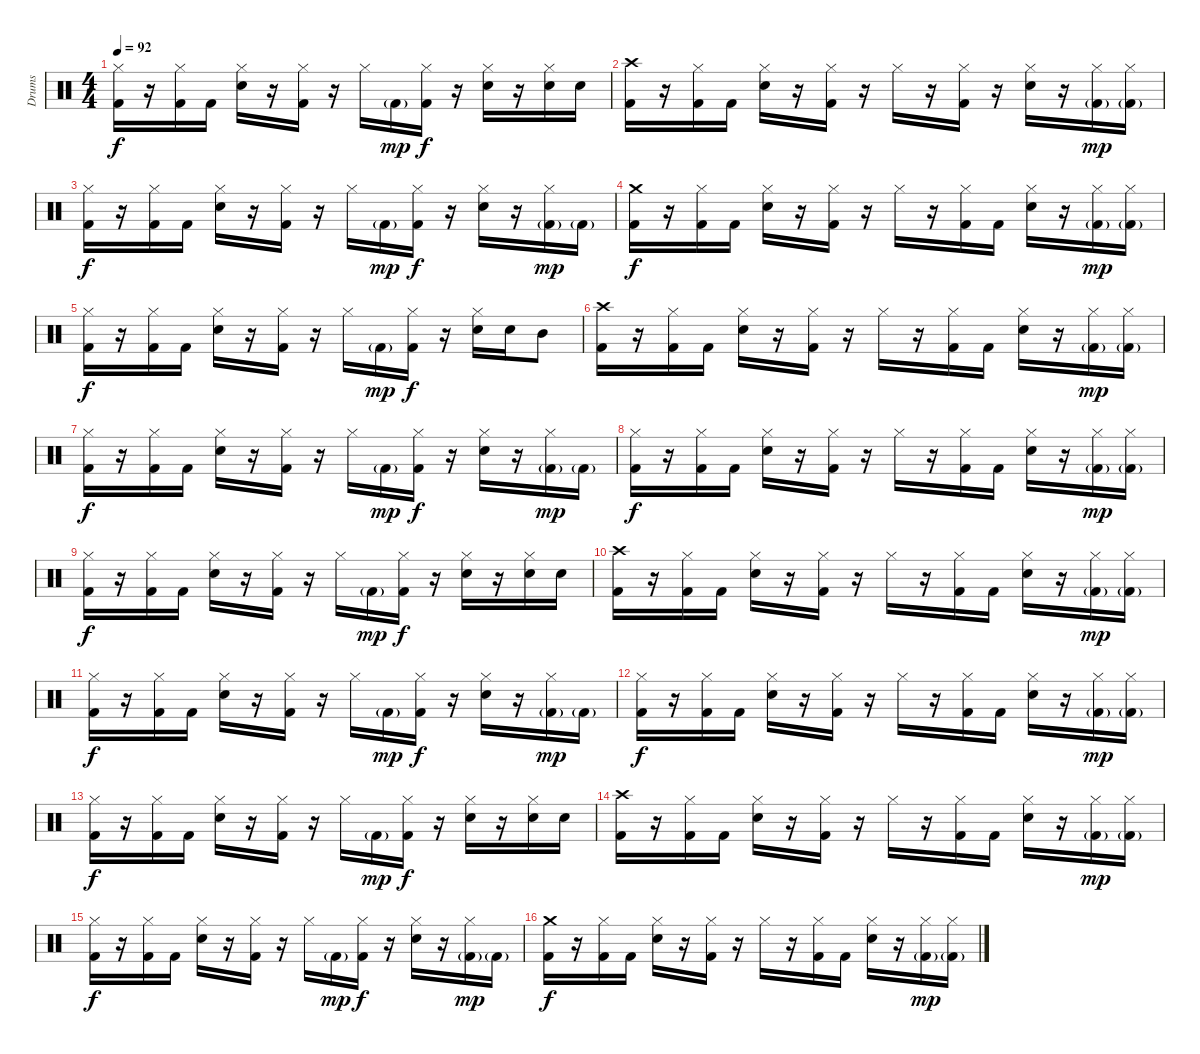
\track ("Drums" "Drums") {instrument percussion}
\staff {score}
\articulation defaults
\ts (4 4)
\tempo 92
\clef neutral
\ks c
("Hi-Hat (closed)" "Kick (hit) 2").16{dy f} r.16 ("Hi-Hat (closed)" "Kick (hit) 2").16 "Kick (hit) 2".16 ("Hi-Hat (closed)" "Snare (hit) 2").16 r.16 ("Hi-Hat (closed)" "Kick (hit) 2").16 r.16 "Hi-Hat (closed)".16 "Kick (hit) 2"{g}.16{dy mp} ("Hi-Hat (closed)" "Kick (hit) 2").16{dy f} r.16 ("Hi-Hat (closed)" "Snare (hit) 2").16 r.16 ("Hi-Hat (closed)" "Snare (hit) 2").16 "Snare (hit) 2".16 |
("Crash high (hit)" "Kick (hit) 2").16 r.16 ("Hi-Hat (closed)" "Kick (hit) 2").16 "Kick (hit) 2".16 ("Hi-Hat (closed)" "Snare (hit) 2").16 r.16 ("Hi-Hat (closed)" "Kick (hit) 2").16 r.16 "Hi-Hat (closed)".16 r.16 ("Hi-Hat (closed)" "Kick (hit) 2").16 r.16 ("Hi-Hat (closed)" "Snare (hit) 2").16 r.16 ("Hi-Hat (closed)" "Kick (hit) 2"{g}).16{dy mp} ("Hi-Hat (closed)" "Kick (hit) 2"{g}).16 |
("Hi-Hat (closed)" "Kick (hit) 2").16{dy f} r.16 ("Hi-Hat (closed)" "Kick (hit) 2").16 "Kick (hit) 2".16 ("Hi-Hat (closed)" "Snare (hit) 2").16 r.16 ("Hi-Hat (closed)" "Kick (hit) 2").16 r.16 "Hi-Hat (closed)".16 "Kick (hit) 2"{g}.16{dy mp} ("Hi-Hat (closed)" "Kick (hit) 2").16{dy f} r.16 ("Hi-Hat (closed)" "Snare (hit) 2").16 r.16 ("Hi-Hat (closed)" "Kick (hit) 2"{g}).16{dy mp} "Kick (hit) 2"{g}.16 |
("Crash medium (hit)" "Kick (hit) 2").16{dy f} r.16 ("Hi-Hat (closed)" "Kick (hit) 2").16 "Kick (hit) 2".16 ("Hi-Hat (closed)" "Snare (hit) 2").16 r.16 ("Hi-Hat (closed)" "Kick (hit) 2").16 r.16 "Hi-Hat (closed)".16 r.16 ("Hi-Hat (closed)" "Kick (hit) 2").16 "Kick (hit) 2".16 ("Hi-Hat (closed)" "Snare (hit) 2").16 r.16 ("Hi-Hat (closed)" "Kick (hit) 2"{g}).16{dy mp} ("Hi-Hat (closed)" "Kick (hit) 2"{g}).16 |
("Hi-Hat (closed)" "Kick (hit) 2").16{dy f} r.16 ("Hi-Hat (closed)" "Kick (hit) 2").16 "Kick (hit) 2".16 ("Hi-Hat (closed)" "Snare (hit) 2").16 r.16 ("Hi-Hat (closed)" "Kick (hit) 2").16 r.16 "Hi-Hat (closed)".16 "Kick (hit) 2"{g}.16{dy mp} ("Hi-Hat (closed)" "Kick (hit) 2").16{dy f} r.16 ("Hi-Hat (closed)" "Snare (hit) 2").16 "Snare (hit) 2".16 "Mid Tom (hit)".8 |
("Crash high (hit)" "Kick (hit) 2").16 r.16 ("Hi-Hat (closed)" "Kick (hit) 2").16 "Kick (hit) 2".16 ("Hi-Hat (closed)" "Snare (hit) 2").16 r.16 ("Hi-Hat (closed)" "Kick (hit) 2").16 r.16 "Hi-Hat (closed)".16 r.16 ("Hi-Hat (closed)" "Kick (hit) 2").16 "Kick (hit) 2".16 ("Hi-Hat (closed)" "Snare (hit) 2").16 r.16 ("Hi-Hat (closed)" "Kick (hit) 2"{g}).16{dy mp} ("Hi-Hat (closed)" "Kick (hit) 2"{g}).16 |
("Hi-Hat (closed)" "Kick (hit) 2").16{dy f} r.16 ("Hi-Hat (closed)" "Kick (hit) 2").16 "Kick (hit) 2".16 ("Hi-Hat (closed)" "Snare (hit) 2").16 r.16 ("Hi-Hat (closed)" "Kick (hit) 2").16 r.16 "Hi-Hat (closed)".16 "Kick (hit) 2"{g}.16{dy mp} ("Hi-Hat (closed)" "Kick (hit) 2").16{dy f} r.16 ("Hi-Hat (closed)" "Snare (hit) 2").16 r.16 ("Hi-Hat (closed)" "Kick (hit) 2"{g}).16{dy mp} "Kick (hit) 2"{g}.16 |
("Hi-Hat (closed)" "Kick (hit) 2").16{dy f} r.16 ("Hi-Hat (closed)" "Kick (hit) 2").16 "Kick (hit) 2".16 ("Hi-Hat (closed)" "Snare (hit) 2").16 r.16 ("Hi-Hat (closed)" "Kick (hit) 2").16 r.16 "Hi-Hat (closed)".16 r.16 ("Hi-Hat (closed)" "Kick (hit) 2").16 "Kick (hit) 2".16 ("Hi-Hat (closed)" "Snare (hit) 2").16 r.16 ("Hi-Hat (closed)" "Kick (hit) 2"{g}).16{dy mp} ("Hi-Hat (closed)" "Kick (hit) 2"{g}).16 |
("Hi-Hat (closed)" "Kick (hit) 2").16{dy f} r.16 ("Hi-Hat (closed)" "Kick (hit) 2").16 "Kick (hit) 2".16 ("Hi-Hat (closed)" "Snare (hit) 2").16 r.16 ("Hi-Hat (closed)" "Kick (hit) 2").16 r.16 "Hi-Hat (closed)".16 "Kick (hit) 2"{g}.16{dy mp} ("Hi-Hat (closed)" "Kick (hit) 2").16{dy f} r.16 ("Hi-Hat (closed)" "Snare (hit) 2").16 r.16 ("Hi-Hat (closed)" "Snare (hit) 2").16 "Snare (hit) 2".16 |
("Crash high (hit)" "Kick (hit) 2").16 r.16 ("Hi-Hat (closed)" "Kick (hit) 2").16 "Kick (hit) 2".16 ("Hi-Hat (closed)" "Snare (hit) 2").16 r.16 ("Hi-Hat (closed)" "Kick (hit) 2").16 r.16 "Hi-Hat (closed)".16 r.16 ("Hi-Hat (closed)" "Kick (hit) 2").16 "Kick (hit) 2".16 ("Hi-Hat (closed)" "Snare (hit) 2").16 r.16 ("Hi-Hat (closed)" "Kick (hit) 2"{g}).16{dy mp} ("Hi-Hat (closed)" "Kick (hit) 2"{g}).16 |
("Hi-Hat (closed)" "Kick (hit) 2").16{dy f} r.16 ("Hi-Hat (closed)" "Kick (hit) 2").16 "Kick (hit) 2".16 ("Hi-Hat (closed)" "Snare (hit) 2").16 r.16 ("Hi-Hat (closed)" "Kick (hit) 2").16 r.16 "Hi-Hat (closed)".16 "Kick (hit) 2"{g}.16{dy mp} ("Hi-Hat (closed)" "Kick (hit) 2").16{dy f} r.16 ("Hi-Hat (closed)" "Snare (hit) 2").16 r.16 ("Hi-Hat (closed)" "Kick (hit) 2"{g}).16{dy mp} "Kick (hit) 2"{g}.16 |
("Hi-Hat (closed)" "Kick (hit) 2").16{dy f} r.16 ("Hi-Hat (closed)" "Kick (hit) 2").16 "Kick (hit) 2".16 ("Hi-Hat (closed)" "Snare (hit) 2").16 r.16 ("Hi-Hat (closed)" "Kick (hit) 2").16 r.16 "Hi-Hat (closed)".16 r.16 ("Hi-Hat (closed)" "Kick (hit) 2").16 "Kick (hit) 2".16 ("Hi-Hat (closed)" "Snare (hit) 2").16 r.16 ("Hi-Hat (closed)" "Kick (hit) 2"{g}).16{dy mp} ("Hi-Hat (closed)" "Kick (hit) 2"{g}).16 |
("Hi-Hat (closed)" "Kick (hit) 2").16{dy f} r.16 ("Hi-Hat (closed)" "Kick (hit) 2").16 "Kick (hit) 2".16 ("Hi-Hat (closed)" "Snare (hit) 2").16 r.16 ("Hi-Hat (closed)" "Kick (hit) 2").16 r.16 "Hi-Hat (closed)".16 "Kick (hit) 2"{g}.16{dy mp} ("Hi-Hat (closed)" "Kick (hit) 2").16{dy f} r.16 ("Hi-Hat (closed)" "Snare (hit) 2").16 r.16 ("Hi-Hat (closed)" "Snare (hit) 2").16 "Snare (hit) 2".16 |
("Crash high (hit)" "Kick (hit) 2").16 r.16 ("Hi-Hat (closed)" "Kick (hit) 2").16 "Kick (hit) 2".16 ("Hi-Hat (closed)" "Snare (hit) 2").16 r.16 ("Hi-Hat (closed)" "Kick (hit) 2").16 r.16 "Hi-Hat (closed)".16 r.16 ("Hi-Hat (closed)" "Kick (hit) 2").16 "Kick (hit) 2".16 ("Hi-Hat (closed)" "Snare (hit) 2").16 r.16 ("Hi-Hat (closed)" "Kick (hit) 2"{g}).16{dy mp} ("Hi-Hat (closed)" "Kick (hit) 2"{g}).16 |
("Hi-Hat (closed)" "Kick (hit) 2").16{dy f} r.16 ("Hi-Hat (closed)" "Kick (hit) 2").16 "Kick (hit) 2".16 ("Hi-Hat (closed)" "Snare (hit) 2").16 r.16 ("Hi-Hat (closed)" "Kick (hit) 2").16 r.16 "Hi-Hat (closed)".16 "Kick (hit) 2"{g}.16{dy mp} ("Hi-Hat (closed)" "Kick (hit) 2").16{dy f} r.16 ("Hi-Hat (closed)" "Snare (hit) 2").16 r.16 ("Hi-Hat (closed)" "Kick (hit) 2"{g}).16{dy mp} "Kick (hit) 2"{g}.16 |
("Crash medium (hit)" "Kick (hit) 2").16{dy f} r.16 ("Hi-Hat (closed)" "Kick (hit) 2").16 "Kick (hit) 2".16 ("Hi-Hat (closed)" "Snare (hit) 2").16 r.16 ("Hi-Hat (closed)" "Kick (hit) 2").16 r.16 "Hi-Hat (closed)".16 r.16 ("Hi-Hat (closed)" "Kick (hit) 2").16 "Kick (hit) 2".16 ("Hi-Hat (closed)" "Snare (hit) 2").16 r.16 ("Hi-Hat (closed)" "Kick (hit) 2"{g}).16{dy mp} ("Hi-Hat (closed)" "Kick (hit) 2"{g}).16
